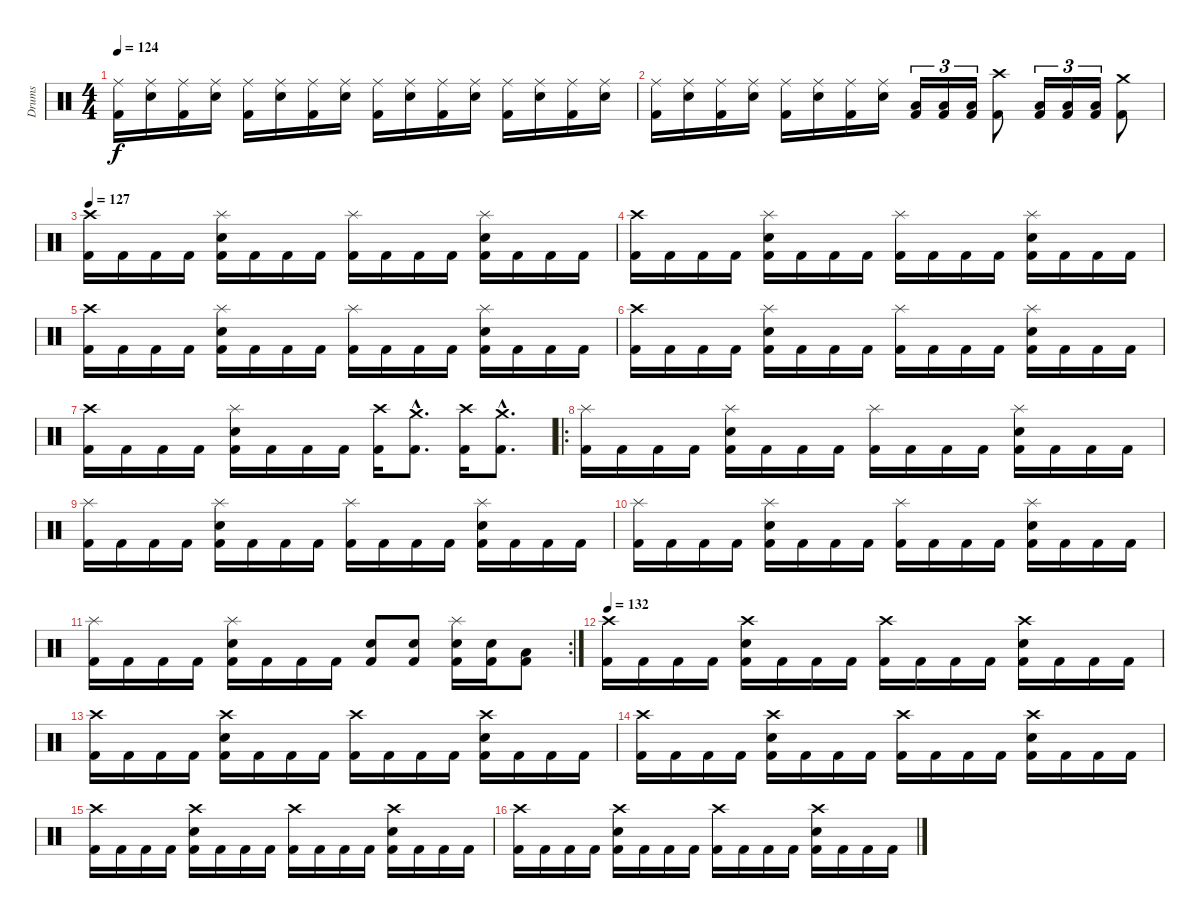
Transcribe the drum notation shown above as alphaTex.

\track ("Drums" "Drums") {instrument percussion}
\staff {score}
\articulation defaults
\ts (4 4)
\tempo 124
\clef neutral
\ks c
("Ride (middle)" "Kick (hit) 2").16{dy f} ("Ride (middle)" "Snare (hit) 2").16 ("Ride (middle)" "Kick (hit) 2").16 ("Ride (middle)" "Snare (hit) 2").16 ("Ride (middle)" "Kick (hit) 2").16 ("Ride (middle)" "Snare (hit) 2").16 ("Ride (middle)" "Kick (hit) 2").16 ("Ride (middle)" "Snare (hit) 2").16 ("Ride (middle)" "Kick (hit) 2").16 ("Ride (middle)" "Snare (hit) 2").16 ("Ride (middle)" "Kick (hit) 2").16 ("Ride (middle)" "Snare (hit) 2").16 ("Ride (middle)" "Kick (hit) 2").16 ("Ride (middle)" "Snare (hit) 2").16 ("Ride (middle)" "Kick (hit) 2").16 ("Ride (middle)" "Snare (hit) 2").16 |
("Ride (middle)" "Kick (hit) 2").16 ("Ride (middle)" "Snare (hit) 2").16 ("Ride (middle)" "Kick (hit) 2").16 ("Ride (middle)" "Snare (hit) 2").16 ("Ride (middle)" "Kick (hit) 2").16 ("Ride (middle)" "Snare (hit) 2").16 ("Ride (middle)" "Kick (hit) 2").16 ("Ride (middle)" "Snare (hit) 2").16 ("Low Tom (hit)" "Kick (hit) 2").16{tu (3 2)} ("Low Tom (hit)" "Kick (hit) 2").16{tu (3 2)} ("Low Tom (hit)" "Kick (hit) 2").16{tu (3 2)} ("Crash high (hit)" "Kick (hit) 2").8 ("Low Tom (hit)" "Kick (hit) 2").16{tu (3 2)} ("Low Tom (hit)" "Kick (hit) 2").16{tu (3 2)} ("Low Tom (hit)" "Kick (hit) 2").16{tu (3 2)} ("Crash medium (hit)" "Kick (hit) 2").8 |
\tempo 127
("Crash high (hit)" "Kick (hit) 2").16 "Kick (hit) 2".16 "Kick (hit) 2".16 "Kick (hit) 2".16 ("Splash (hit)" "Snare (hit) 2" "Kick (hit) 2").16 "Kick (hit) 2".16 "Kick (hit) 2".16 "Kick (hit) 2".16 ("Splash (hit)" "Kick (hit) 2").16 "Kick (hit) 2".16 "Kick (hit) 2".16 "Kick (hit) 2".16 ("Splash (hit)" "Snare (hit) 2" "Kick (hit) 2").16 "Kick (hit) 2".16 "Kick (hit) 2".16 "Kick (hit) 2".16 |
("Crash high (hit)" "Kick (hit) 2").16 "Kick (hit) 2".16 "Kick (hit) 2".16 "Kick (hit) 2".16 ("Splash (hit)" "Snare (hit) 2" "Kick (hit) 2").16 "Kick (hit) 2".16 "Kick (hit) 2".16 "Kick (hit) 2".16 ("Splash (hit)" "Kick (hit) 2").16 "Kick (hit) 2".16 "Kick (hit) 2".16 "Kick (hit) 2".16 ("Splash (hit)" "Snare (hit) 2" "Kick (hit) 2").16 "Kick (hit) 2".16 "Kick (hit) 2".16 "Kick (hit) 2".16 |
("Crash high (hit)" "Kick (hit) 2").16 "Kick (hit) 2".16 "Kick (hit) 2".16 "Kick (hit) 2".16 ("Splash (hit)" "Snare (hit) 2" "Kick (hit) 2").16 "Kick (hit) 2".16 "Kick (hit) 2".16 "Kick (hit) 2".16 ("Splash (hit)" "Kick (hit) 2").16 "Kick (hit) 2".16 "Kick (hit) 2".16 "Kick (hit) 2".16 ("Splash (hit)" "Snare (hit) 2" "Kick (hit) 2").16 "Kick (hit) 2".16 "Kick (hit) 2".16 "Kick (hit) 2".16 |
("Crash high (hit)" "Kick (hit) 2").16 "Kick (hit) 2".16 "Kick (hit) 2".16 "Kick (hit) 2".16 ("Splash (hit)" "Snare (hit) 2" "Kick (hit) 2").16 "Kick (hit) 2".16 "Kick (hit) 2".16 "Kick (hit) 2".16 ("Splash (hit)" "Kick (hit) 2").16 "Kick (hit) 2".16 "Kick (hit) 2".16 "Kick (hit) 2".16 ("Splash (hit)" "Snare (hit) 2" "Kick (hit) 2").16 "Kick (hit) 2".16 "Kick (hit) 2".16 "Kick (hit) 2".16 |
("Crash high (hit)" "Kick (hit) 2").16 "Kick (hit) 2".16 "Kick (hit) 2".16 "Kick (hit) 2".16 ("Splash (hit)" "Snare (hit) 2" "Kick (hit) 2").16 "Kick (hit) 2".16 "Kick (hit) 2".16 "Kick (hit) 2".16 ("Crash high (hit)" "Kick (hit) 2").16 ("Crash medium (hit)"{hac} "Kick (hit) 2"{hac}).8{d} ("Crash high (hit)" "Kick (hit) 2").16 ("Crash medium (hit)"{hac} "Kick (hit) 2"{hac}).8{d} |
\ro
("Splash (hit)" "Kick (hit) 2").16 "Kick (hit) 2".16 "Kick (hit) 2".16 "Kick (hit) 2".16 ("Splash (hit)" "Snare (hit) 2" "Kick (hit) 2").16 "Kick (hit) 2".16 "Kick (hit) 2".16 "Kick (hit) 2".16 ("Splash (hit)" "Kick (hit) 2").16 "Kick (hit) 2".16 "Kick (hit) 2".16 "Kick (hit) 2".16 ("Splash (hit)" "Snare (hit) 2" "Kick (hit) 2").16 "Kick (hit) 2".16 "Kick (hit) 2".16 "Kick (hit) 2".16 |
("Splash (hit)" "Kick (hit) 2").16 "Kick (hit) 2".16 "Kick (hit) 2".16 "Kick (hit) 2".16 ("Splash (hit)" "Snare (hit) 2" "Kick (hit) 2").16 "Kick (hit) 2".16 "Kick (hit) 2".16 "Kick (hit) 2".16 ("Splash (hit)" "Kick (hit) 2").16 "Kick (hit) 2".16 "Kick (hit) 2".16 "Kick (hit) 2".16 ("Splash (hit)" "Snare (hit) 2" "Kick (hit) 2").16 "Kick (hit) 2".16 "Kick (hit) 2".16 "Kick (hit) 2".16 |
("Splash (hit)" "Kick (hit) 2").16 "Kick (hit) 2".16 "Kick (hit) 2".16 "Kick (hit) 2".16 ("Splash (hit)" "Snare (hit) 2" "Kick (hit) 2").16 "Kick (hit) 2".16 "Kick (hit) 2".16 "Kick (hit) 2".16 ("Splash (hit)" "Kick (hit) 2").16 "Kick (hit) 2".16 "Kick (hit) 2".16 "Kick (hit) 2".16 ("Splash (hit)" "Snare (hit) 2" "Kick (hit) 2").16 "Kick (hit) 2".16 "Kick (hit) 2".16 "Kick (hit) 2".16 |
\rc 2
("Splash (hit)" "Kick (hit) 2").16 "Kick (hit) 2".16 "Kick (hit) 2".16 "Kick (hit) 2".16 ("Splash (hit)" "Snare (hit) 2" "Kick (hit) 2").16 "Kick (hit) 2".16 "Kick (hit) 2".16 "Kick (hit) 2".16 ("Snare (hit) 2" "Kick (hit) 2").8 ("Snare (hit) 2" "Kick (hit) 2").8 ("Splash (hit)" "Snare (hit) 2" "Kick (hit) 2").16 ("Snare (hit) 2" "Kick (hit) 2").16 ("Low Floor Tom (hit)" "Kick (hit) 2").8 |
\tempo 132
("Crash high (hit)" "Kick (hit) 2").16 "Kick (hit) 2".16 "Kick (hit) 2".16 "Kick (hit) 2".16 ("Crash high (hit)" "Snare (hit) 2" "Kick (hit) 2").16 "Kick (hit) 2".16 "Kick (hit) 2".16 "Kick (hit) 2".16 ("Crash high (hit)" "Kick (hit) 2").16 "Kick (hit) 2".16 "Kick (hit) 2".16 "Kick (hit) 2".16 ("Crash high (hit)" "Snare (hit) 2" "Kick (hit) 2").16 "Kick (hit) 2".16 "Kick (hit) 2".16 "Kick (hit) 2".16 |
("Crash high (hit)" "Kick (hit) 2").16 "Kick (hit) 2".16 "Kick (hit) 2".16 "Kick (hit) 2".16 ("Crash high (hit)" "Snare (hit) 2" "Kick (hit) 2").16 "Kick (hit) 2".16 "Kick (hit) 2".16 "Kick (hit) 2".16 ("Crash high (hit)" "Kick (hit) 2").16 "Kick (hit) 2".16 "Kick (hit) 2".16 "Kick (hit) 2".16 ("Crash high (hit)" "Snare (hit) 2" "Kick (hit) 2").16 "Kick (hit) 2".16 "Kick (hit) 2".16 "Kick (hit) 2".16 |
("Crash high (hit)" "Kick (hit) 2").16 "Kick (hit) 2".16 "Kick (hit) 2".16 "Kick (hit) 2".16 ("Crash high (hit)" "Snare (hit) 2" "Kick (hit) 2").16 "Kick (hit) 2".16 "Kick (hit) 2".16 "Kick (hit) 2".16 ("Crash high (hit)" "Kick (hit) 2").16 "Kick (hit) 2".16 "Kick (hit) 2".16 "Kick (hit) 2".16 ("Crash high (hit)" "Snare (hit) 2" "Kick (hit) 2").16 "Kick (hit) 2".16 "Kick (hit) 2".16 "Kick (hit) 2".16 |
("Crash high (hit)" "Kick (hit) 2").16 "Kick (hit) 2".16 "Kick (hit) 2".16 "Kick (hit) 2".16 ("Crash high (hit)" "Snare (hit) 2" "Kick (hit) 2").16 "Kick (hit) 2".16 "Kick (hit) 2".16 "Kick (hit) 2".16 ("Crash high (hit)" "Kick (hit) 2").16 "Kick (hit) 2".16 "Kick (hit) 2".16 "Kick (hit) 2".16 ("Crash high (hit)" "Snare (hit) 2" "Kick (hit) 2").16 "Kick (hit) 2".16 "Kick (hit) 2".16 "Kick (hit) 2".16 |
("Crash high (hit)" "Kick (hit) 2").16 "Kick (hit) 2".16 "Kick (hit) 2".16 "Kick (hit) 2".16 ("Crash high (hit)" "Snare (hit) 2" "Kick (hit) 2").16 "Kick (hit) 2".16 "Kick (hit) 2".16 "Kick (hit) 2".16 ("Crash high (hit)" "Kick (hit) 2").16 "Kick (hit) 2".16 "Kick (hit) 2".16 "Kick (hit) 2".16 ("Crash high (hit)" "Snare (hit) 2" "Kick (hit) 2").16 "Kick (hit) 2".16 "Kick (hit) 2".16 "Kick (hit) 2".16
